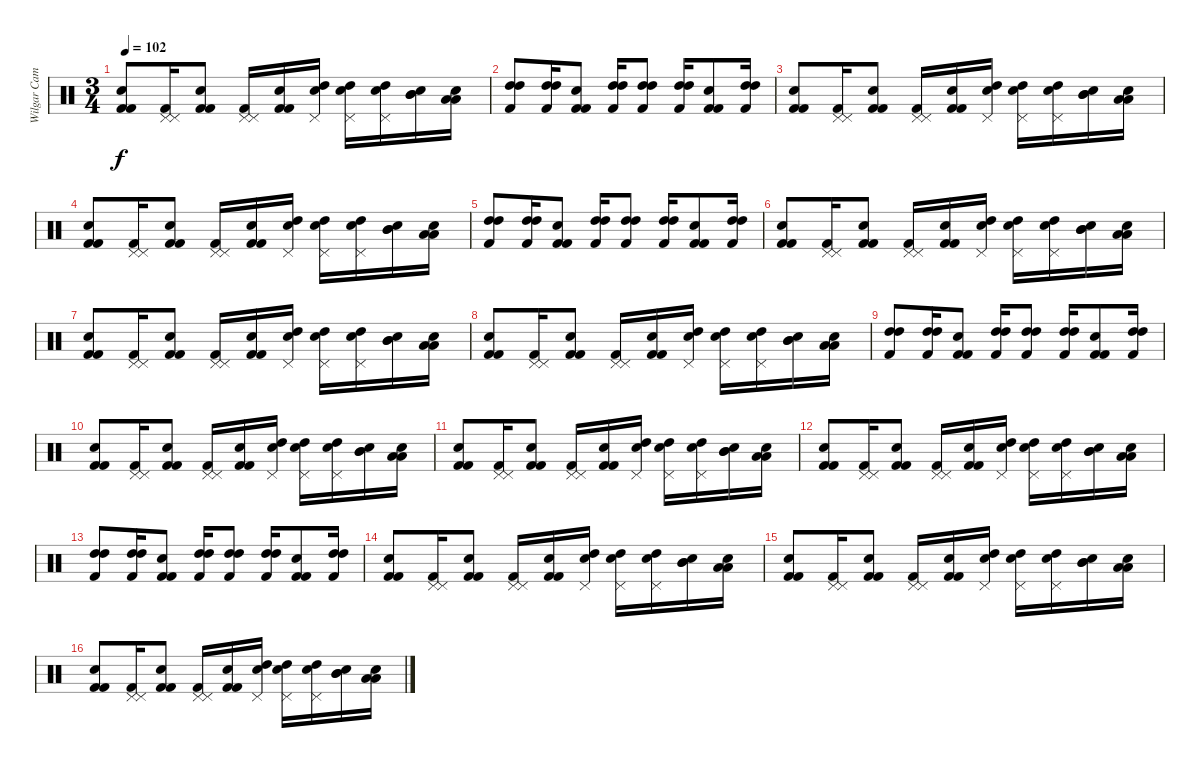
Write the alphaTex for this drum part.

\track ("Wilgar Campbell" "Wilgar Cam") {instrument percussion}
\staff {score}
\articulation defaults
\ts (3 4)
\tempo 102
\clef neutral
\ks c
("Electric Snare (hit)" "Kick (hit) 2" "Kick (hit) 2").8{dy f} ("Pedal Hi-Hat (hit)" "Pedal Hi-Hat (hit)" "Kick (hit) 2").16 ("Snare (hit) 2" "Kick (hit) 2" "Kick (hit) 2").8 ("Pedal Hi-Hat (hit)" "Pedal Hi-Hat (hit)" "Kick (hit) 2").16 ("Snare (hit) 2" "Kick (hit) 2" "Kick (hit) 2").16 ("Electric Snare (hit)" "Pedal Hi-Hat (hit)" "High Tom (hit)").16 ("Electric Snare (hit)" "Pedal Hi-Hat (hit)" "High Tom (hit)").16 ("Electric Snare (hit)" "Pedal Hi-Hat (hit)" "High Tom (hit)").16 ("Electric Snare (hit)" "Mid Tom (hit)" "Mid Tom (hit)").16 ("Electric Snare (hit)" "Low Tom (hit)" "Low Tom (hit)").16 |
("High Tom (hit)" "High Tom (hit)" "Kick (hit) 2").8 ("High Tom (hit)" "High Tom (hit)" "Kick (hit) 2").16 ("Snare (hit) 2" "Kick (hit) 2" "Kick (hit) 2").8 ("High Tom (hit)" "High Tom (hit)" "Kick (hit) 2").16 ("High Tom (hit)" "High Tom (hit)" "Kick (hit) 2").8 ("High Tom (hit)" "High Tom (hit)" "Kick (hit) 2").16 ("Snare (hit) 2" "Kick (hit) 2" "Kick (hit) 2").8 ("High Tom (hit)" "High Tom (hit)" "Kick (hit) 2").16 |
("Electric Snare (hit)" "Kick (hit) 2" "Kick (hit) 2").8 ("Pedal Hi-Hat (hit)" "Pedal Hi-Hat (hit)" "Kick (hit) 2").16 ("Snare (hit) 2" "Kick (hit) 2" "Kick (hit) 2").8 ("Pedal Hi-Hat (hit)" "Pedal Hi-Hat (hit)" "Kick (hit) 2").16 ("Snare (hit) 2" "Kick (hit) 2" "Kick (hit) 2").16 ("Electric Snare (hit)" "Pedal Hi-Hat (hit)" "High Tom (hit)").16 ("Electric Snare (hit)" "Pedal Hi-Hat (hit)" "High Tom (hit)").16 ("Electric Snare (hit)" "Pedal Hi-Hat (hit)" "High Tom (hit)").16 ("Electric Snare (hit)" "Mid Tom (hit)" "Mid Tom (hit)").16 ("Electric Snare (hit)" "Low Tom (hit)" "Low Tom (hit)").16 |
("Electric Snare (hit)" "Kick (hit) 2" "Kick (hit) 2").8 ("Pedal Hi-Hat (hit)" "Pedal Hi-Hat (hit)" "Kick (hit) 2").16 ("Snare (hit) 2" "Kick (hit) 2" "Kick (hit) 2").8 ("Pedal Hi-Hat (hit)" "Pedal Hi-Hat (hit)" "Kick (hit) 2").16 ("Snare (hit) 2" "Kick (hit) 2" "Kick (hit) 2").16 ("Electric Snare (hit)" "Pedal Hi-Hat (hit)" "High Tom (hit)").16 ("Electric Snare (hit)" "Pedal Hi-Hat (hit)" "High Tom (hit)").16 ("Electric Snare (hit)" "Pedal Hi-Hat (hit)" "High Tom (hit)").16 ("Electric Snare (hit)" "Mid Tom (hit)" "Mid Tom (hit)").16 ("Electric Snare (hit)" "Low Tom (hit)" "Low Tom (hit)").16 |
("High Tom (hit)" "High Tom (hit)" "Kick (hit) 2").8 ("High Tom (hit)" "High Tom (hit)" "Kick (hit) 2").16 ("Snare (hit) 2" "Kick (hit) 2" "Kick (hit) 2").8 ("High Tom (hit)" "High Tom (hit)" "Kick (hit) 2").16 ("High Tom (hit)" "High Tom (hit)" "Kick (hit) 2").8 ("High Tom (hit)" "High Tom (hit)" "Kick (hit) 2").16 ("Snare (hit) 2" "Kick (hit) 2" "Kick (hit) 2").8 ("High Tom (hit)" "High Tom (hit)" "Kick (hit) 2").16 |
("Electric Snare (hit)" "Kick (hit) 2" "Kick (hit) 2").8 ("Pedal Hi-Hat (hit)" "Pedal Hi-Hat (hit)" "Kick (hit) 2").16 ("Snare (hit) 2" "Kick (hit) 2" "Kick (hit) 2").8 ("Pedal Hi-Hat (hit)" "Pedal Hi-Hat (hit)" "Kick (hit) 2").16 ("Snare (hit) 2" "Kick (hit) 2" "Kick (hit) 2").16 ("Electric Snare (hit)" "Pedal Hi-Hat (hit)" "High Tom (hit)").16 ("Electric Snare (hit)" "Pedal Hi-Hat (hit)" "High Tom (hit)").16 ("Electric Snare (hit)" "Pedal Hi-Hat (hit)" "High Tom (hit)").16 ("Electric Snare (hit)" "Mid Tom (hit)" "Mid Tom (hit)").16 ("Electric Snare (hit)" "Low Tom (hit)" "Low Tom (hit)").16 |
("Electric Snare (hit)" "Kick (hit) 2" "Kick (hit) 2").8 ("Pedal Hi-Hat (hit)" "Pedal Hi-Hat (hit)" "Kick (hit) 2").16 ("Snare (hit) 2" "Kick (hit) 2" "Kick (hit) 2").8 ("Pedal Hi-Hat (hit)" "Pedal Hi-Hat (hit)" "Kick (hit) 2").16 ("Snare (hit) 2" "Kick (hit) 2" "Kick (hit) 2").16 ("Electric Snare (hit)" "Pedal Hi-Hat (hit)" "High Tom (hit)").16 ("Electric Snare (hit)" "Pedal Hi-Hat (hit)" "High Tom (hit)").16 ("Electric Snare (hit)" "Pedal Hi-Hat (hit)" "High Tom (hit)").16 ("Electric Snare (hit)" "Mid Tom (hit)" "Mid Tom (hit)").16 ("Electric Snare (hit)" "Low Tom (hit)" "Low Tom (hit)").16 |
("Electric Snare (hit)" "Kick (hit) 2" "Kick (hit) 2").8 ("Pedal Hi-Hat (hit)" "Pedal Hi-Hat (hit)" "Kick (hit) 2").16 ("Snare (hit) 2" "Kick (hit) 2" "Kick (hit) 2").8 ("Pedal Hi-Hat (hit)" "Pedal Hi-Hat (hit)" "Kick (hit) 2").16 ("Snare (hit) 2" "Kick (hit) 2" "Kick (hit) 2").16 ("Electric Snare (hit)" "Pedal Hi-Hat (hit)" "High Tom (hit)").16 ("Electric Snare (hit)" "Pedal Hi-Hat (hit)" "High Tom (hit)").16 ("Electric Snare (hit)" "Pedal Hi-Hat (hit)" "High Tom (hit)").16 ("Electric Snare (hit)" "Mid Tom (hit)" "Mid Tom (hit)").16 ("Electric Snare (hit)" "Low Tom (hit)" "Low Tom (hit)").16 |
("High Tom (hit)" "High Tom (hit)" "Kick (hit) 2").8 ("High Tom (hit)" "High Tom (hit)" "Kick (hit) 2").16 ("Snare (hit) 2" "Kick (hit) 2" "Kick (hit) 2").8 ("High Tom (hit)" "High Tom (hit)" "Kick (hit) 2").16 ("High Tom (hit)" "High Tom (hit)" "Kick (hit) 2").8 ("High Tom (hit)" "High Tom (hit)" "Kick (hit) 2").16 ("Snare (hit) 2" "Kick (hit) 2" "Kick (hit) 2").8 ("High Tom (hit)" "High Tom (hit)" "Kick (hit) 2").16 |
("Electric Snare (hit)" "Kick (hit) 2" "Kick (hit) 2").8 ("Pedal Hi-Hat (hit)" "Pedal Hi-Hat (hit)" "Kick (hit) 2").16 ("Snare (hit) 2" "Kick (hit) 2" "Kick (hit) 2").8 ("Pedal Hi-Hat (hit)" "Pedal Hi-Hat (hit)" "Kick (hit) 2").16 ("Snare (hit) 2" "Kick (hit) 2" "Kick (hit) 2").16 ("Electric Snare (hit)" "Pedal Hi-Hat (hit)" "High Tom (hit)").16 ("Electric Snare (hit)" "Pedal Hi-Hat (hit)" "High Tom (hit)").16 ("Electric Snare (hit)" "Pedal Hi-Hat (hit)" "High Tom (hit)").16 ("Electric Snare (hit)" "Mid Tom (hit)" "Mid Tom (hit)").16 ("Electric Snare (hit)" "Low Tom (hit)" "Low Tom (hit)").16 |
("Electric Snare (hit)" "Kick (hit) 2" "Kick (hit) 2").8 ("Pedal Hi-Hat (hit)" "Pedal Hi-Hat (hit)" "Kick (hit) 2").16 ("Snare (hit) 2" "Kick (hit) 2" "Kick (hit) 2").8 ("Pedal Hi-Hat (hit)" "Pedal Hi-Hat (hit)" "Kick (hit) 2").16 ("Snare (hit) 2" "Kick (hit) 2" "Kick (hit) 2").16 ("Electric Snare (hit)" "Pedal Hi-Hat (hit)" "High Tom (hit)").16 ("Electric Snare (hit)" "Pedal Hi-Hat (hit)" "High Tom (hit)").16 ("Electric Snare (hit)" "Pedal Hi-Hat (hit)" "High Tom (hit)").16 ("Electric Snare (hit)" "Mid Tom (hit)" "Mid Tom (hit)").16 ("Electric Snare (hit)" "Low Tom (hit)" "Low Tom (hit)").16 |
("Electric Snare (hit)" "Kick (hit) 2" "Kick (hit) 2").8 ("Pedal Hi-Hat (hit)" "Pedal Hi-Hat (hit)" "Kick (hit) 2").16 ("Snare (hit) 2" "Kick (hit) 2" "Kick (hit) 2").8 ("Pedal Hi-Hat (hit)" "Pedal Hi-Hat (hit)" "Kick (hit) 2").16 ("Snare (hit) 2" "Kick (hit) 2" "Kick (hit) 2").16 ("Electric Snare (hit)" "Pedal Hi-Hat (hit)" "High Tom (hit)").16 ("Electric Snare (hit)" "Pedal Hi-Hat (hit)" "High Tom (hit)").16 ("Electric Snare (hit)" "Pedal Hi-Hat (hit)" "High Tom (hit)").16 ("Electric Snare (hit)" "Mid Tom (hit)" "Mid Tom (hit)").16 ("Electric Snare (hit)" "Low Tom (hit)" "Low Tom (hit)").16 |
("High Tom (hit)" "High Tom (hit)" "Kick (hit) 2").8 ("High Tom (hit)" "High Tom (hit)" "Kick (hit) 2").16 ("Snare (hit) 2" "Kick (hit) 2" "Kick (hit) 2").8 ("High Tom (hit)" "High Tom (hit)" "Kick (hit) 2").16 ("High Tom (hit)" "High Tom (hit)" "Kick (hit) 2").8 ("High Tom (hit)" "High Tom (hit)" "Kick (hit) 2").16 ("Snare (hit) 2" "Kick (hit) 2" "Kick (hit) 2").8 ("High Tom (hit)" "High Tom (hit)" "Kick (hit) 2").16 |
("Electric Snare (hit)" "Kick (hit) 2" "Kick (hit) 2").8 ("Pedal Hi-Hat (hit)" "Pedal Hi-Hat (hit)" "Kick (hit) 2").16 ("Snare (hit) 2" "Kick (hit) 2" "Kick (hit) 2").8 ("Pedal Hi-Hat (hit)" "Pedal Hi-Hat (hit)" "Kick (hit) 2").16 ("Snare (hit) 2" "Kick (hit) 2" "Kick (hit) 2").16 ("Electric Snare (hit)" "Pedal Hi-Hat (hit)" "High Tom (hit)").16 ("Electric Snare (hit)" "Pedal Hi-Hat (hit)" "High Tom (hit)").16 ("Electric Snare (hit)" "Pedal Hi-Hat (hit)" "High Tom (hit)").16 ("Electric Snare (hit)" "Mid Tom (hit)" "Mid Tom (hit)").16 ("Electric Snare (hit)" "Low Tom (hit)" "Low Tom (hit)").16 |
("Electric Snare (hit)" "Kick (hit) 2" "Kick (hit) 2").8 ("Pedal Hi-Hat (hit)" "Pedal Hi-Hat (hit)" "Kick (hit) 2").16 ("Snare (hit) 2" "Kick (hit) 2" "Kick (hit) 2").8 ("Pedal Hi-Hat (hit)" "Pedal Hi-Hat (hit)" "Kick (hit) 2").16 ("Snare (hit) 2" "Kick (hit) 2" "Kick (hit) 2").16 ("Electric Snare (hit)" "Pedal Hi-Hat (hit)" "High Tom (hit)").16 ("Electric Snare (hit)" "Pedal Hi-Hat (hit)" "High Tom (hit)").16 ("Electric Snare (hit)" "Pedal Hi-Hat (hit)" "High Tom (hit)").16 ("Electric Snare (hit)" "Mid Tom (hit)" "Mid Tom (hit)").16 ("Electric Snare (hit)" "Low Tom (hit)" "Low Tom (hit)").16 |
("Electric Snare (hit)" "Kick (hit) 2" "Kick (hit) 2").8 ("Pedal Hi-Hat (hit)" "Pedal Hi-Hat (hit)" "Kick (hit) 2").16 ("Snare (hit) 2" "Kick (hit) 2" "Kick (hit) 2").8 ("Pedal Hi-Hat (hit)" "Pedal Hi-Hat (hit)" "Kick (hit) 2").16 ("Snare (hit) 2" "Kick (hit) 2" "Kick (hit) 2").16 ("Electric Snare (hit)" "Pedal Hi-Hat (hit)" "High Tom (hit)").16 ("Electric Snare (hit)" "Pedal Hi-Hat (hit)" "High Tom (hit)").16 ("Electric Snare (hit)" "Pedal Hi-Hat (hit)" "High Tom (hit)").16 ("Electric Snare (hit)" "Mid Tom (hit)" "Mid Tom (hit)").16 ("Electric Snare (hit)" "Low Tom (hit)" "Low Tom (hit)").16
